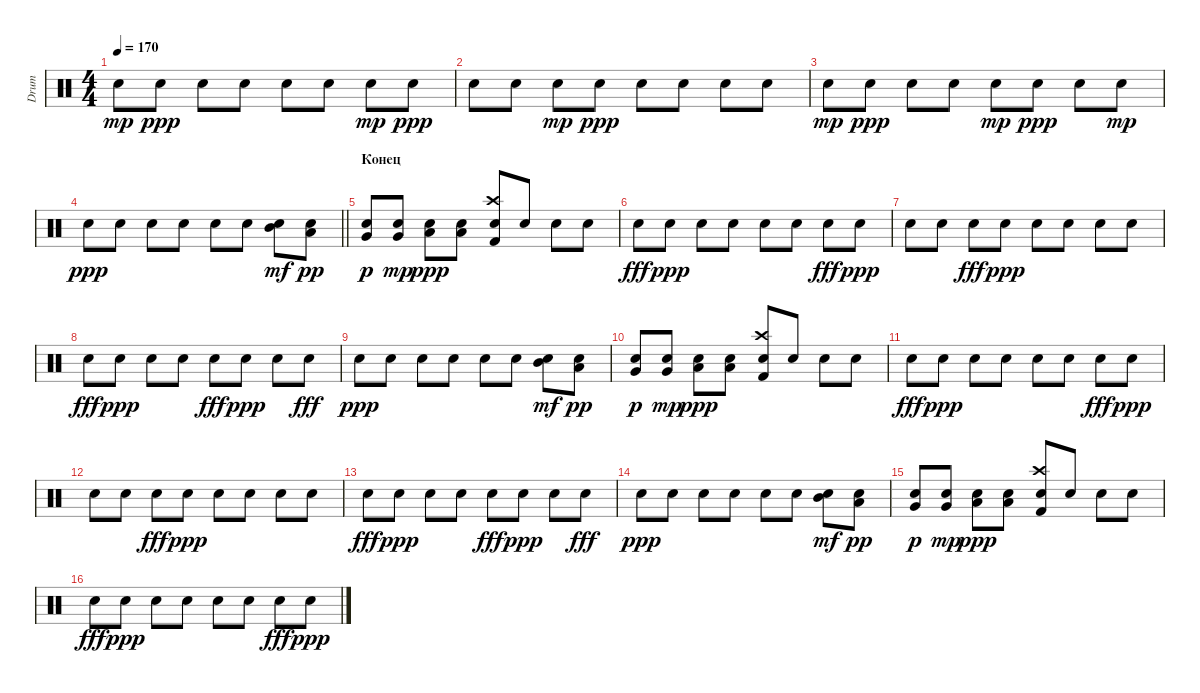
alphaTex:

\track ("Drum" "Drum") {instrument percussion}
\staff {score}
\articulation defaults
\ts (4 4)
\tempo 170
\clef neutral
\ks c "Snare (hit) 2".8{dy mp} "Snare (hit) 2".8{dy ppp} "Snare (hit) 2".8 "Snare (hit) 2".8 "Snare (hit) 2".8 "Snare (hit) 2".8 "Snare (hit) 2".8{dy mp} "Snare (hit) 2".8{dy ppp}
|
"Snare (hit) 2".8 "Snare (hit) 2".8 "Snare (hit) 2".8{dy mp} "Snare (hit) 2".8{dy ppp} "Snare (hit) 2".8 "Snare (hit) 2".8 "Snare (hit) 2".8 "Snare (hit) 2".8 |
"Snare (hit) 2".8{dy mp} "Snare (hit) 2".8{dy ppp} "Snare (hit) 2".8 "Snare (hit) 2".8 "Snare (hit) 2".8{dy mp} "Snare (hit) 2".8{dy ppp} "Snare (hit) 2".8 "Snare (hit) 2".8{dy mp} |
\barLineRight lightlight "Snare (hit) 2".8{dy ppp} "Snare (hit) 2".8 "Snare (hit) 2".8 "Snare (hit) 2".8 "Snare (hit) 2".8 "Snare (hit) 2".8
("Snare (hit) 2" "Mid Tom (hit)").8{dy mf} ("Snare (hit) 2" "Low Tom (hit)").8{dy pp} |
\section ("" "Конец")
("Snare (hit) 2" "Very Low Tom (hit)").8{dy p} ("Snare (hit) 2" "Very Low Tom (hit)").8{dy mp} ("Low Floor Tom (hit)" "Snare (hit) 2").8{dy ppp} ("Low Floor Tom (hit)" "Snare (hit) 2").8 ("Snare (hit) 2" "Crash high (hit)" "Kick (hit) 2").8 "Snare (hit) 2".8 "Snare (hit) 2".8 "Snare (hit) 2".8 |
"Snare (hit) 2".8{dy fff} "Snare (hit) 2".8{dy ppp} "Snare (hit) 2".8 "Snare (hit) 2".8 "Snare (hit) 2".8 "Snare (hit) 2".8 "Snare (hit) 2".8{dy fff} "Snare (hit) 2".8{dy ppp} |
"Snare (hit) 2".8 "Snare (hit) 2".8 "Snare (hit) 2".8{dy fff} "Snare (hit) 2".8{dy ppp} "Snare (hit) 2".8 "Snare (hit) 2".8 "Snare (hit) 2".8 "Snare (hit) 2".8 |
"Snare (hit) 2".8{dy fff} "Snare (hit) 2".8{dy ppp} "Snare (hit) 2".8 "Snare (hit) 2".8 "Snare (hit) 2".8{dy fff} "Snare (hit) 2".8{dy ppp} "Snare (hit) 2".8 "Snare (hit) 2".8{dy fff} |
"Snare (hit) 2".8{dy ppp} "Snare (hit) 2".8 "Snare (hit) 2".8 "Snare (hit) 2".8 "Snare (hit) 2".8 "Snare (hit) 2".8 ("Snare (hit) 2" "Mid Tom (hit)").8{dy mf} ("Snare (hit) 2" "Low Tom (hit)").8{dy pp} |
("Snare (hit) 2" "Very Low Tom (hit)").8{dy p} ("Snare (hit) 2" "Very Low Tom (hit)").8{dy mp} ("Low Floor Tom (hit)" "Snare (hit) 2").8{dy ppp} ("Low Floor Tom (hit)" "Snare (hit) 2").8 ("Snare (hit) 2" "Crash high (hit)" "Kick (hit) 2").8 "Snare (hit) 2".8 "Snare (hit) 2".8 "Snare (hit) 2".8 |
"Snare (hit) 2".8{dy fff} "Snare (hit) 2".8{dy ppp} "Snare (hit) 2".8 "Snare (hit) 2".8 "Snare (hit) 2".8 "Snare (hit) 2".8 "Snare (hit) 2".8{dy fff} "Snare (hit) 2".8{dy ppp} |
"Snare (hit) 2".8 "Snare (hit) 2".8 "Snare (hit) 2".8{dy fff} "Snare (hit) 2".8{dy ppp} "Snare (hit) 2".8 "Snare (hit) 2".8 "Snare (hit) 2".8 "Snare (hit) 2".8 |
"Snare (hit) 2".8{dy fff} "Snare (hit) 2".8{dy ppp} "Snare (hit) 2".8 "Snare (hit) 2".8 "Snare (hit) 2".8{dy fff} "Snare (hit) 2".8{dy ppp} "Snare (hit) 2".8 "Snare (hit) 2".8{dy fff} |
"Snare (hit) 2".8{dy ppp} "Snare (hit) 2".8 "Snare (hit) 2".8 "Snare (hit) 2".8 "Snare (hit) 2".8 "Snare (hit) 2".8 ("Snare (hit) 2" "Mid Tom (hit)").8{dy mf} ("Snare (hit) 2" "Low Tom (hit)").8{dy pp} |
("Snare (hit) 2" "Very Low Tom (hit)").8{dy p} ("Snare (hit) 2" "Very Low Tom (hit)").8{dy mp} ("Low Floor Tom (hit)" "Snare (hit) 2").8{dy ppp} ("Low Floor Tom (hit)" "Snare (hit) 2").8 ("Snare (hit) 2" "Crash high (hit)" "Kick (hit) 2").8 "Snare (hit) 2".8 "Snare (hit) 2".8 "Snare (hit) 2".8 |
"Snare (hit) 2".8{dy fff} "Snare (hit) 2".8{dy ppp} "Snare (hit) 2".8 "Snare (hit) 2".8 "Snare (hit) 2".8 "Snare (hit) 2".8 "Snare (hit) 2".8{dy fff} "Snare (hit) 2".8{dy ppp}
